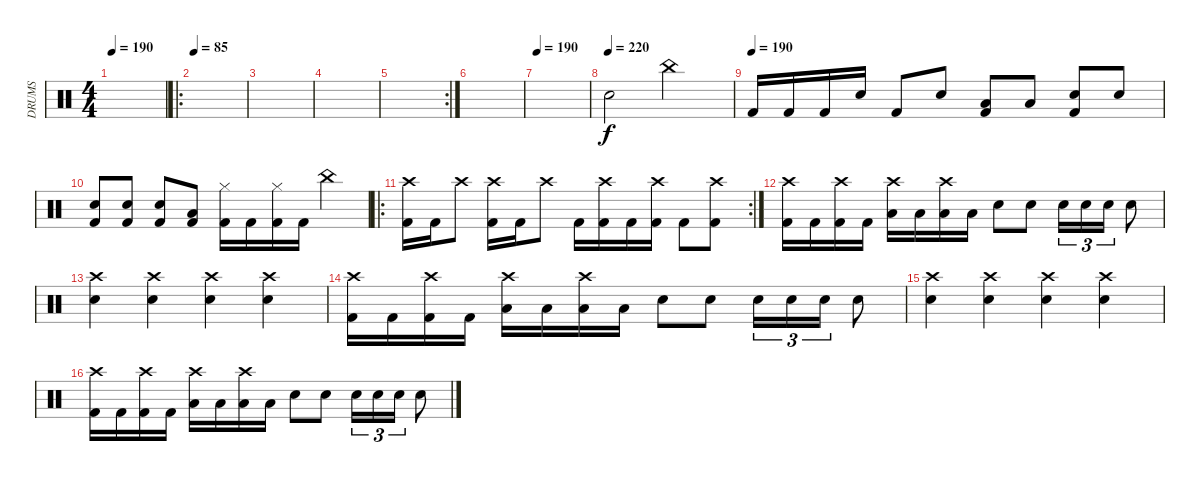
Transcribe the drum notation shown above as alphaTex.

\track ("DRUMS" "DRUMS") {instrument percussion}
\staff {score}
\articulation defaults
\ts (4 4)
\tempo 190
\clef neutral
\ks c
|
\ro
\tempo 85
|
|
|
\rc 2
|
|
\tempo 190
|
\tempo (220)
"Snare (hit) 2".2 "China (hit)".2 |
\tempo (190)
"Kick (hit) 2".16{dy f} "Kick (hit) 2".16 "Kick (hit) 2".16 "Snare (hit) 2".16 "Kick (hit) 2".8 "Electric Snare (hit)".8 ("Low Tom (hit)" "Kick (hit) 2").8 "Low Tom (hit)".8 ("Electric Snare (hit)" "Kick (hit) 2").8 "Electric Snare (hit)".8 |
("Snare (hit) 2" "Kick (hit) 2").8 ("Electric Snare (hit)" "Kick (hit) 2").8 ("Snare (hit) 2" "Kick (hit) 2").8 ("Low Tom (hit)" "Kick (hit) 2").8 ("Hi-Hat (closed)" "Kick (hit) 2").16 "Kick (hit) 2".16 ("Hi-Hat (closed)" "Kick (hit) 2").16 "Kick (hit) 2".16 "China (hit)".4 |
\ro
\rc 2
("Crash high (hit)" "Kick (hit) 2").16 "Kick (hit) 2".16 "Crash high (hit)".8 ("Crash high (hit)" "Kick (hit) 2").16 "Kick (hit) 2".16 "Crash high (hit)".8 "Kick (hit) 2".16 ("Crash high (hit)" "Kick (hit) 2").16 "Kick (hit) 2".16 ("Crash high (hit)" "Kick (hit) 2").16 "Kick (hit) 2".8 ("Crash high (hit)" "Kick (hit) 2").8 |
("Crash high (hit)" "Kick (hit) 2").16 "Kick (hit) 2".16 ("Crash high (hit)" "Kick (hit) 2").16 "Kick (hit) 2".16 ("Crash high (hit)" "Low Tom (hit)").16 "Low Tom (hit)".16 ("Crash high (hit)" "Low Tom (hit)").16 "Low Tom (hit)".16 "Electric Snare (hit)".8 "Electric Snare (hit)".8 "Electric Snare (hit)".16{tu (3 2)} "Electric Snare (hit)".16{tu (3 2)} "Electric Snare (hit)".16{tu (3 2)} "Snare (hit) 2".8 |
("Crash high (hit)" "Electric Snare (hit)").4 ("Crash high (hit)" "Snare (hit) 2").4 ("Crash high (hit)" "Electric Snare (hit)").4 ("Crash high (hit)" "Snare (hit) 2").4 |
("Crash high (hit)" "Kick (hit) 2").16 "Kick (hit) 2".16 ("Crash high (hit)" "Kick (hit) 2").16 "Kick (hit) 2".16 ("Crash high (hit)" "Low Tom (hit)").16 "Low Tom (hit)".16 ("Crash high (hit)" "Low Tom (hit)").16 "Low Tom (hit)".16 "Electric Snare (hit)".8 "Electric Snare (hit)".8 "Electric Snare (hit)".16{tu (3 2)} "Electric Snare (hit)".16{tu (3 2)} "Electric Snare (hit)".16{tu (3 2)} "Snare (hit) 2".8 |
("Crash high (hit)" "Electric Snare (hit)").4 ("Crash high (hit)" "Snare (hit) 2").4 ("Crash high (hit)" "Electric Snare (hit)").4 ("Crash high (hit)" "Snare (hit) 2").4 |
("Crash high (hit)" "Kick (hit) 2").16 "Kick (hit) 2".16 ("Crash high (hit)" "Kick (hit) 2").16 "Kick (hit) 2".16 ("Crash high (hit)" "Low Tom (hit)").16 "Low Tom (hit)".16 ("Crash high (hit)" "Low Tom (hit)").16 "Low Tom (hit)".16 "Electric Snare (hit)".8 "Electric Snare (hit)".8 "Electric Snare (hit)".16{tu (3 2)} "Electric Snare (hit)".16{tu (3 2)} "Electric Snare (hit)".16{tu (3 2)} "Snare (hit) 2".8
